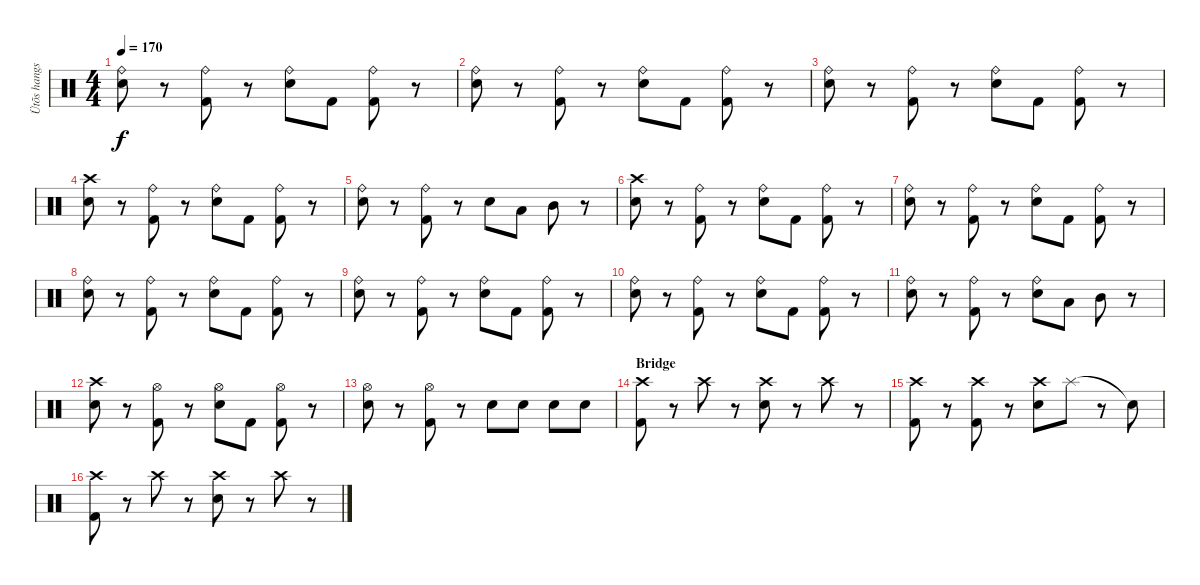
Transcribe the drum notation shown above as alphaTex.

\track ("Ütõs hangszer" "Ütõs hangs") {instrument percussion}
\staff {score}
\articulation defaults
\ts (4 4)
\tempo 170
\clef neutral
\ks c
("Ride (bell)" "Snare (hit) 2").8{dy f} r.8 ("Ride (bell)" "Kick (hit) 2").8 r.8 ("Ride (bell)" "Snare (hit) 2").8 "Kick (hit) 2".8 ("Ride (bell)" "Kick (hit) 2").8 r.8 |
("Ride (bell)" "Snare (hit) 2").8 r.8 ("Ride (bell)" "Kick (hit) 2").8 r.8 ("Ride (bell)" "Snare (hit) 2").8 "Kick (hit) 2".8 ("Ride (bell)" "Kick (hit) 2").8 r.8 |
("Ride (bell)" "Snare (hit) 2").8 r.8 ("Ride (bell)" "Kick (hit) 2").8 r.8 ("Ride (bell)" "Snare (hit) 2").8 "Kick (hit) 2".8 ("Ride (bell)" "Kick (hit) 2").8 r.8 |
("Crash high (hit)" "Snare (hit) 2").8 r.8 ("Ride (bell)" "Kick (hit) 2").8 r.8 ("Ride (bell)" "Snare (hit) 2").8 "Kick (hit) 2".8 ("Ride (bell)" "Kick (hit) 2").8 r.8 |
("Ride (bell)" "Snare (hit) 2").8 r.8 ("Ride (bell)" "Kick (hit) 2").8 r.8 "Snare (hit) 2".8 "Low Tom (hit)".8 "Mid Tom (hit)".8 r.8 |
("Crash high (hit)" "Snare (hit) 2").8 r.8 ("Ride (bell)" "Kick (hit) 2").8 r.8 ("Ride (bell)" "Snare (hit) 2").8 "Kick (hit) 2".8 ("Ride (bell)" "Kick (hit) 2").8 r.8 |
("Ride (bell)" "Snare (hit) 2").8 r.8 ("Ride (bell)" "Kick (hit) 2").8 r.8 ("Ride (bell)" "Snare (hit) 2").8 "Kick (hit) 2".8 ("Ride (bell)" "Kick (hit) 2").8 r.8 |
("Ride (bell)" "Snare (hit) 2").8 r.8 ("Ride (bell)" "Kick (hit) 2").8 r.8 ("Ride (bell)" "Snare (hit) 2").8 "Kick (hit) 2".8 ("Ride (bell)" "Kick (hit) 2").8 r.8 |
("Ride (bell)" "Snare (hit) 2").8 r.8 ("Ride (bell)" "Kick (hit) 2").8 r.8 ("Ride (bell)" "Snare (hit) 2").8 "Kick (hit) 2".8 ("Ride (bell)" "Kick (hit) 2").8 r.8 |
("Ride (bell)" "Snare (hit) 2").8 r.8 ("Ride (bell)" "Kick (hit) 2").8 r.8 ("Ride (bell)" "Snare (hit) 2").8 "Kick (hit) 2".8 ("Ride (bell)" "Kick (hit) 2").8 r.8 |
("Ride (bell)" "Snare (hit) 2").8 r.8 ("Ride (bell)" "Kick (hit) 2").8 r.8 ("Ride (bell)" "Snare (hit) 2").8 "Low Tom (hit)".8 "Mid Tom (hit)".8 r.8 |
("Crash high (hit)" "Snare (hit) 2").8 r.8 ("Hi-Hat (open)" "Kick (hit) 2").8 r.8 ("Hi-Hat (open)" "Snare (hit) 2").8 "Kick (hit) 2".8 ("Hi-Hat (open)" "Kick (hit) 2").8 r.8 |
("Hi-Hat (open)" "Snare (hit) 2").8 r.8 ("Hi-Hat (open)" "Kick (hit) 2").8 r.8 "Snare (hit) 2".8 "Snare (hit) 2".8 "Snare (hit) 2".8 "Snare (hit) 2".8 |
\section ("" "Bridge")
("Crash high (hit)" "Kick (hit) 2").8 r.8 "Crash high (hit)".8 r.8 ("Crash high (hit)" "Snare (hit) 2").8 r.8 "Crash high (hit)".8 r.8 |
("Crash high (hit)" "Kick (hit) 2").8 r.8 ("Crash high (hit)" "Kick (hit) 2").8 r.8 ("Crash high (hit)" "Snare (hit) 2").8 "Splash (hit)".8 r.8 "Snare (hit)"{t}.8 |
("Crash high (hit)" "Kick (hit) 2").8 r.8 "Crash high (hit)".8 r.8 ("Crash high (hit)" "Snare (hit) 2").8 r.8 "Crash high (hit)".8 r.8
